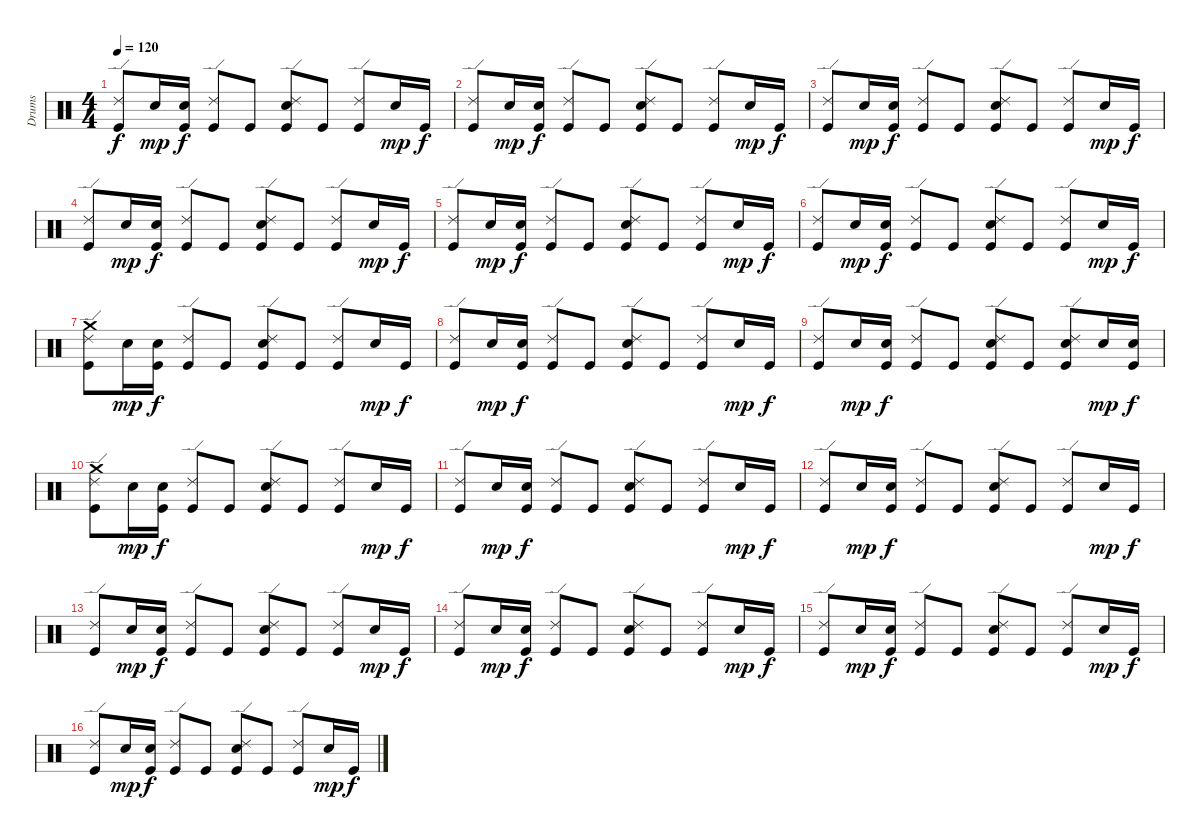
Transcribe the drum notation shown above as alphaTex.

\track ("Drums" "Drums") {instrument percussion}
\staff {score}
\articulation defaults
\ts (4 4)
\tempo 120
\clef neutral
\ks c
("Kick (hit)" "Ride (edge) 2").8{dy f} "Electric Snare (hit)".16{dy mp} ("Kick (hit)" "Electric Snare (hit)").16{dy f} ("Kick (hit)" "Ride (edge) 2").8 "Kick (hit)".8 ("Kick (hit)" "Electric Snare (hit)" "Ride (edge) 2").8 "Kick (hit)".8 ("Kick (hit)" "Ride (edge) 2").8 "Electric Snare (hit)".16{dy mp} "Kick (hit)".16{dy f} |
("Kick (hit)" "Ride (edge) 2").8 "Electric Snare (hit)".16{dy mp} ("Kick (hit)" "Electric Snare (hit)").16{dy f} ("Kick (hit)" "Ride (edge) 2").8 "Kick (hit)".8 ("Kick (hit)" "Electric Snare (hit)" "Ride (edge) 2").8 "Kick (hit)".8 ("Kick (hit)" "Ride (edge) 2").8 "Electric Snare (hit)".16{dy mp} "Kick (hit)".16{dy f} |
("Kick (hit)" "Ride (edge) 2").8 "Electric Snare (hit)".16{dy mp} ("Kick (hit)" "Electric Snare (hit)").16{dy f} ("Kick (hit)" "Ride (edge) 2").8 "Kick (hit)".8 ("Kick (hit)" "Electric Snare (hit)" "Ride (edge) 2").8 "Kick (hit)".8 ("Kick (hit)" "Ride (edge) 2").8 "Electric Snare (hit)".16{dy mp} "Kick (hit)".16{dy f} |
("Kick (hit)" "Ride (edge) 2").8 "Electric Snare (hit)".16{dy mp} ("Kick (hit)" "Electric Snare (hit)").16{dy f} ("Kick (hit)" "Ride (edge) 2").8 "Kick (hit)".8 ("Kick (hit)" "Electric Snare (hit)" "Ride (edge) 2").8 "Kick (hit)".8 ("Kick (hit)" "Ride (edge) 2").8 "Electric Snare (hit)".16{dy mp} "Kick (hit)".16{dy f} |
("Kick (hit)" "Ride (edge) 2").8 "Electric Snare (hit)".16{dy mp} ("Kick (hit)" "Electric Snare (hit)").16{dy f} ("Kick (hit)" "Ride (edge) 2").8 "Kick (hit)".8 ("Kick (hit)" "Electric Snare (hit)" "Ride (edge) 2").8 "Kick (hit)".8 ("Kick (hit)" "Ride (edge) 2").8 "Electric Snare (hit)".16{dy mp} "Kick (hit)".16{dy f} |
("Kick (hit)" "Ride (edge) 2").8 "Electric Snare (hit)".16{dy mp} ("Kick (hit)" "Electric Snare (hit)").16{dy f} ("Kick (hit)" "Ride (edge) 2").8 "Kick (hit)".8 ("Kick (hit)" "Electric Snare (hit)" "Ride (edge) 2").8 "Kick (hit)".8 ("Kick (hit)" "Ride (edge) 2").8 "Electric Snare (hit)".16{dy mp} "Kick (hit)".16{dy f} |
("Kick (hit)" "Crash medium (hit)" "Ride (edge) 2").8 "Electric Snare (hit)".16{dy mp} ("Kick (hit)" "Electric Snare (hit)").16{dy f} ("Kick (hit)" "Ride (edge) 2").8 "Kick (hit)".8 ("Kick (hit)" "Electric Snare (hit)" "Ride (edge) 2").8 "Kick (hit)".8 ("Kick (hit)" "Ride (edge) 2").8 "Electric Snare (hit)".16{dy mp} "Kick (hit)".16{dy f} |
("Kick (hit)" "Ride (edge) 2").8 "Electric Snare (hit)".16{dy mp} ("Kick (hit)" "Electric Snare (hit)").16{dy f} ("Kick (hit)" "Ride (edge) 2").8 "Kick (hit)".8 ("Kick (hit)" "Electric Snare (hit)" "Ride (edge) 2").8 "Kick (hit)".8 ("Kick (hit)" "Ride (edge) 2").8 "Electric Snare (hit)".16{dy mp} "Kick (hit)".16{dy f} |
("Kick (hit)" "Ride (edge) 2").8 "Electric Snare (hit)".16{dy mp} ("Kick (hit)" "Electric Snare (hit)").16{dy f} ("Kick (hit)" "Ride (edge) 2").8 "Kick (hit)".8 ("Kick (hit)" "Electric Snare (hit)" "Ride (edge) 2").8 "Kick (hit)".8 ("Kick (hit)" "Electric Snare (hit)" "Ride (edge) 2").8 "Electric Snare (hit)".16{dy mp} ("Kick (hit)" "Electric Snare (hit)").16{dy f} |
("Kick (hit)" "Crash medium (hit)" "Ride (edge) 2").8 "Electric Snare (hit)".16{dy mp} ("Kick (hit)" "Electric Snare (hit)").16{dy f} ("Kick (hit)" "Ride (edge) 2").8 "Kick (hit)".8 ("Kick (hit)" "Electric Snare (hit)" "Ride (edge) 2").8 "Kick (hit)".8 ("Kick (hit)" "Ride (edge) 2").8 "Electric Snare (hit)".16{dy mp} "Kick (hit)".16{dy f} |
("Kick (hit)" "Ride (edge) 2").8 "Electric Snare (hit)".16{dy mp} ("Kick (hit)" "Electric Snare (hit)").16{dy f} ("Kick (hit)" "Ride (edge) 2").8 "Kick (hit)".8 ("Kick (hit)" "Electric Snare (hit)" "Ride (edge) 2").8 "Kick (hit)".8 ("Kick (hit)" "Ride (edge) 2").8 "Electric Snare (hit)".16{dy mp} "Kick (hit)".16{dy f} |
("Kick (hit)" "Ride (edge) 2").8 "Electric Snare (hit)".16{dy mp} ("Kick (hit)" "Electric Snare (hit)").16{dy f} ("Kick (hit)" "Ride (edge) 2").8 "Kick (hit)".8 ("Kick (hit)" "Electric Snare (hit)" "Ride (edge) 2").8 "Kick (hit)".8 ("Kick (hit)" "Ride (edge) 2").8 "Electric Snare (hit)".16{dy mp} "Kick (hit)".16{dy f} |
("Kick (hit)" "Ride (edge) 2").8 "Electric Snare (hit)".16{dy mp} ("Kick (hit)" "Electric Snare (hit)").16{dy f} ("Kick (hit)" "Ride (edge) 2").8 "Kick (hit)".8 ("Kick (hit)" "Electric Snare (hit)" "Ride (edge) 2").8 "Kick (hit)".8 ("Kick (hit)" "Ride (edge) 2").8 "Electric Snare (hit)".16{dy mp} "Kick (hit)".16{dy f} |
("Kick (hit)" "Ride (edge) 2").8 "Electric Snare (hit)".16{dy mp} ("Kick (hit)" "Electric Snare (hit)").16{dy f} ("Kick (hit)" "Ride (edge) 2").8 "Kick (hit)".8 ("Kick (hit)" "Electric Snare (hit)" "Ride (edge) 2").8 "Kick (hit)".8 ("Kick (hit)" "Ride (edge) 2").8 "Electric Snare (hit)".16{dy mp} "Kick (hit)".16{dy f} |
("Kick (hit)" "Ride (edge) 2").8 "Electric Snare (hit)".16{dy mp} ("Kick (hit)" "Electric Snare (hit)").16{dy f} ("Kick (hit)" "Ride (edge) 2").8 "Kick (hit)".8 ("Kick (hit)" "Electric Snare (hit)" "Ride (edge) 2").8 "Kick (hit)".8 ("Kick (hit)" "Ride (edge) 2").8 "Electric Snare (hit)".16{dy mp} "Kick (hit)".16{dy f} |
("Kick (hit)" "Ride (edge) 2").8 "Electric Snare (hit)".16{dy mp} ("Kick (hit)" "Electric Snare (hit)").16{dy f} ("Kick (hit)" "Ride (edge) 2").8 "Kick (hit)".8 ("Kick (hit)" "Electric Snare (hit)" "Ride (edge) 2").8 "Kick (hit)".8 ("Kick (hit)" "Ride (edge) 2").8 "Electric Snare (hit)".16{dy mp} "Kick (hit)".16{dy f}
